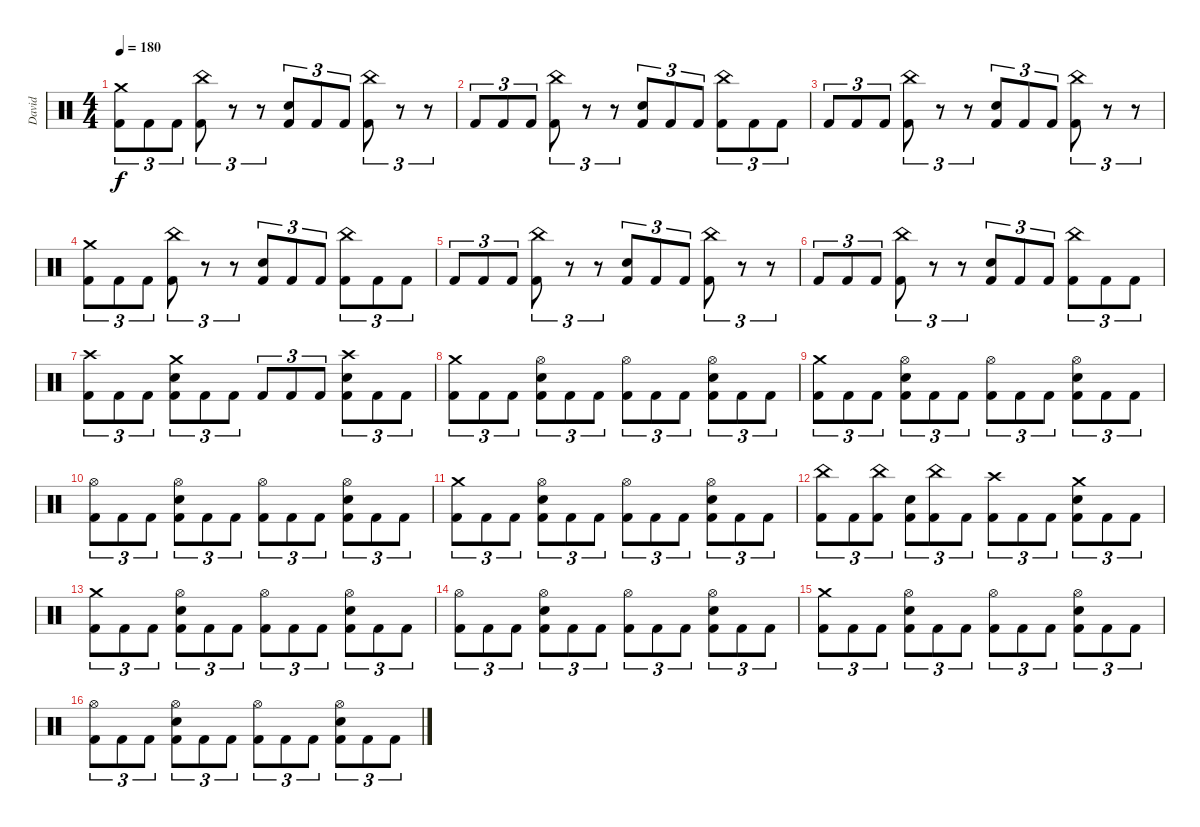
\track ("David" "David") {instrument percussion}
\staff {score}
\articulation defaults
\ts (4 4)
\tempo 180
\clef neutral
\ks c
("Crash medium (hit)" "Kick (hit) 2").8{tu (3 2) dy f} "Kick (hit) 2".8{tu (3 2)} "Kick (hit) 2".8{tu (3 2)} ("China (hit)" "Kick (hit) 2").8{tu (3 2)} r.8{tu (3 2)} r.8{tu (3 2)} ("Electric Snare (hit)" "Kick (hit) 2").8{tu (3 2)} "Kick (hit) 2".8{tu (3 2)} "Kick (hit) 2".8{tu (3 2)} ("China (hit)" "Kick (hit) 2").8{tu (3 2)} r.8{tu (3 2)} r.8{tu (3 2)} |
"Kick (hit) 2".8{tu (3 2)} "Kick (hit) 2".8{tu (3 2)} "Kick (hit) 2".8{tu (3 2)} ("China (hit)" "Kick (hit) 2").8{tu (3 2)} r.8{tu (3 2)} r.8{tu (3 2)} ("Electric Snare (hit)" "Kick (hit) 2").8{tu (3 2)} "Kick (hit) 2".8{tu (3 2)} "Kick (hit) 2".8{tu (3 2)} ("China (hit)" "Kick (hit) 2").8{tu (3 2)} "Kick (hit) 2".8{tu (3 2)} "Kick (hit) 2".8{tu (3 2)} |
"Kick (hit) 2".8{tu (3 2)} "Kick (hit) 2".8{tu (3 2)} "Kick (hit) 2".8{tu (3 2)} ("China (hit)" "Kick (hit) 2").8{tu (3 2)} r.8{tu (3 2)} r.8{tu (3 2)} ("Electric Snare (hit)" "Kick (hit) 2").8{tu (3 2)} "Kick (hit) 2".8{tu (3 2)} "Kick (hit) 2".8{tu (3 2)} ("China (hit)" "Kick (hit) 2").8{tu (3 2)} r.8{tu (3 2)} r.8{tu (3 2)} |
("Crash medium (hit)" "Kick (hit) 2").8{tu (3 2)} "Kick (hit) 2".8{tu (3 2)} "Kick (hit) 2".8{tu (3 2)} ("China (hit)" "Kick (hit) 2").8{tu (3 2)} r.8{tu (3 2)} r.8{tu (3 2)} ("Electric Snare (hit)" "Kick (hit) 2").8{tu (3 2)} "Kick (hit) 2".8{tu (3 2)} "Kick (hit) 2".8{tu (3 2)} ("China (hit)" "Kick (hit) 2").8{tu (3 2)} "Kick (hit) 2".8{tu (3 2)} "Kick (hit) 2".8{tu (3 2)} |
"Kick (hit) 2".8{tu (3 2)} "Kick (hit) 2".8{tu (3 2)} "Kick (hit) 2".8{tu (3 2)} ("China (hit)" "Kick (hit) 2").8{tu (3 2)} r.8{tu (3 2)} r.8{tu (3 2)} ("Electric Snare (hit)" "Kick (hit) 2").8{tu (3 2)} "Kick (hit) 2".8{tu (3 2)} "Kick (hit) 2".8{tu (3 2)} ("China (hit)" "Kick (hit) 2").8{tu (3 2)} r.8{tu (3 2)} r.8{tu (3 2)} |
"Kick (hit) 2".8{tu (3 2)} "Kick (hit) 2".8{tu (3 2)} "Kick (hit) 2".8{tu (3 2)} ("China (hit)" "Kick (hit) 2").8{tu (3 2)} r.8{tu (3 2)} r.8{tu (3 2)} ("Electric Snare (hit)" "Kick (hit) 2").8{tu (3 2)} "Kick (hit) 2".8{tu (3 2)} "Kick (hit) 2".8{tu (3 2)} ("China (hit)" "Kick (hit) 2").8{tu (3 2)} "Kick (hit) 2".8{tu (3 2)} "Kick (hit) 2".8{tu (3 2)} |
("Crash high (hit)" "Kick (hit) 2").8{tu (3 2)} "Kick (hit) 2".8{tu (3 2)} "Kick (hit) 2".8{tu (3 2)} ("Crash medium (hit)" "Electric Snare (hit)" "Kick (hit) 2").8{tu (3 2)} "Kick (hit) 2".8{tu (3 2)} "Kick (hit) 2".8{tu (3 2)} "Kick (hit) 2".8{tu (3 2)} "Kick (hit) 2".8{tu (3 2)} "Kick (hit) 2".8{tu (3 2)} ("Crash high (hit)" "Electric Snare (hit)" "Kick (hit) 2").8{tu (3 2)} "Kick (hit) 2".8{tu (3 2)} "Kick (hit) 2".8{tu (3 2)} |
("Crash medium (hit)" "Kick (hit) 2").8{tu (3 2)} "Kick (hit) 2".8{tu (3 2)} "Kick (hit) 2".8{tu (3 2)} ("Hi-Hat (open)" "Electric Snare (hit)" "Kick (hit) 2").8{tu (3 2)} "Kick (hit) 2".8{tu (3 2)} "Kick (hit) 2".8{tu (3 2)} ("Hi-Hat (open)" "Kick (hit) 2").8{tu (3 2)} "Kick (hit) 2".8{tu (3 2)} "Kick (hit) 2".8{tu (3 2)} ("Hi-Hat (open)" "Electric Snare (hit)" "Kick (hit) 2").8{tu (3 2)} "Kick (hit) 2".8{tu (3 2)} "Kick (hit) 2".8{tu (3 2)} |
("Crash medium (hit)" "Kick (hit) 2").8{tu (3 2)} "Kick (hit) 2".8{tu (3 2)} "Kick (hit) 2".8{tu (3 2)} ("Hi-Hat (open)" "Electric Snare (hit)" "Kick (hit) 2").8{tu (3 2)} "Kick (hit) 2".8{tu (3 2)} "Kick (hit) 2".8{tu (3 2)} ("Hi-Hat (open)" "Kick (hit) 2").8{tu (3 2)} "Kick (hit) 2".8{tu (3 2)} "Kick (hit) 2".8{tu (3 2)} ("Hi-Hat (open)" "Electric Snare (hit)" "Kick (hit) 2").8{tu (3 2)} "Kick (hit) 2".8{tu (3 2)} "Kick (hit) 2".8{tu (3 2)} |
("Hi-Hat (open)" "Kick (hit) 2").8{tu (3 2)} "Kick (hit) 2".8{tu (3 2)} "Kick (hit) 2".8{tu (3 2)} ("Hi-Hat (open)" "Electric Snare (hit)" "Kick (hit) 2").8{tu (3 2)} "Kick (hit) 2".8{tu (3 2)} "Kick (hit) 2".8{tu (3 2)} ("Hi-Hat (open)" "Kick (hit) 2").8{tu (3 2)} "Kick (hit) 2".8{tu (3 2)} "Kick (hit) 2".8{tu (3 2)} ("Hi-Hat (open)" "Electric Snare (hit)" "Kick (hit) 2").8{tu (3 2)} "Kick (hit) 2".8{tu (3 2)} "Kick (hit) 2".8{tu (3 2)} |
("Crash medium (hit)" "Kick (hit) 2").8{tu (3 2)} "Kick (hit) 2".8{tu (3 2)} "Kick (hit) 2".8{tu (3 2)} ("Hi-Hat (open)" "Electric Snare (hit)" "Kick (hit) 2").8{tu (3 2)} "Kick (hit) 2".8{tu (3 2)} "Kick (hit) 2".8{tu (3 2)} ("Hi-Hat (open)" "Kick (hit) 2").8{tu (3 2)} "Kick (hit) 2".8{tu (3 2)} "Kick (hit) 2".8{tu (3 2)} ("Hi-Hat (open)" "Electric Snare (hit)" "Kick (hit) 2").8{tu (3 2)} "Kick (hit) 2".8{tu (3 2)} "Kick (hit) 2".8{tu (3 2)} |
("China (hit)" "Kick (hit) 2").8{tu (3 2)} "Kick (hit) 2".8{tu (3 2)} ("China (hit)" "Kick (hit) 2").8{tu (3 2)} ("Electric Snare (hit)" "Kick (hit) 2").8{tu (3 2)} ("China (hit)" "Kick (hit) 2").8{tu (3 2)} "Kick (hit) 2".8{tu (3 2)} ("Crash high (hit)" "Kick (hit) 2").8{tu (3 2)} "Kick (hit) 2".8{tu (3 2)} "Kick (hit) 2".8{tu (3 2)} ("Crash medium (hit)" "Electric Snare (hit)" "Kick (hit) 2").8{tu (3 2)} "Kick (hit) 2".8{tu (3 2)} "Kick (hit) 2".8{tu (3 2)} |
("Crash medium (hit)" "Kick (hit) 2").8{tu (3 2)} "Kick (hit) 2".8{tu (3 2)} "Kick (hit) 2".8{tu (3 2)} ("Hi-Hat (open)" "Electric Snare (hit)" "Kick (hit) 2").8{tu (3 2)} "Kick (hit) 2".8{tu (3 2)} "Kick (hit) 2".8{tu (3 2)} ("Hi-Hat (open)" "Kick (hit) 2").8{tu (3 2)} "Kick (hit) 2".8{tu (3 2)} "Kick (hit) 2".8{tu (3 2)} ("Hi-Hat (open)" "Electric Snare (hit)" "Kick (hit) 2").8{tu (3 2)} "Kick (hit) 2".8{tu (3 2)} "Kick (hit) 2".8{tu (3 2)} |
("Hi-Hat (open)" "Kick (hit) 2").8{tu (3 2)} "Kick (hit) 2".8{tu (3 2)} "Kick (hit) 2".8{tu (3 2)} ("Hi-Hat (open)" "Electric Snare (hit)" "Kick (hit) 2").8{tu (3 2)} "Kick (hit) 2".8{tu (3 2)} "Kick (hit) 2".8{tu (3 2)} ("Hi-Hat (open)" "Kick (hit) 2").8{tu (3 2)} "Kick (hit) 2".8{tu (3 2)} "Kick (hit) 2".8{tu (3 2)} ("Hi-Hat (open)" "Electric Snare (hit)" "Kick (hit) 2").8{tu (3 2)} "Kick (hit) 2".8{tu (3 2)} "Kick (hit) 2".8{tu (3 2)} |
("Crash medium (hit)" "Kick (hit) 2").8{tu (3 2)} "Kick (hit) 2".8{tu (3 2)} "Kick (hit) 2".8{tu (3 2)} ("Hi-Hat (open)" "Electric Snare (hit)" "Kick (hit) 2").8{tu (3 2)} "Kick (hit) 2".8{tu (3 2)} "Kick (hit) 2".8{tu (3 2)} ("Hi-Hat (open)" "Kick (hit) 2").8{tu (3 2)} "Kick (hit) 2".8{tu (3 2)} "Kick (hit) 2".8{tu (3 2)} ("Hi-Hat (open)" "Electric Snare (hit)" "Kick (hit) 2").8{tu (3 2)} "Kick (hit) 2".8{tu (3 2)} "Kick (hit) 2".8{tu (3 2)} |
("Hi-Hat (open)" "Kick (hit) 2").8{tu (3 2)} "Kick (hit) 2".8{tu (3 2)} "Kick (hit) 2".8{tu (3 2)} ("Hi-Hat (open)" "Electric Snare (hit)" "Kick (hit) 2").8{tu (3 2)} "Kick (hit) 2".8{tu (3 2)} "Kick (hit) 2".8{tu (3 2)} ("Hi-Hat (open)" "Kick (hit) 2").8{tu (3 2)} "Kick (hit) 2".8{tu (3 2)} "Kick (hit) 2".8{tu (3 2)} ("Hi-Hat (open)" "Electric Snare (hit)" "Kick (hit) 2").8{tu (3 2)} "Kick (hit) 2".8{tu (3 2)} "Kick (hit) 2".8{tu (3 2)}
